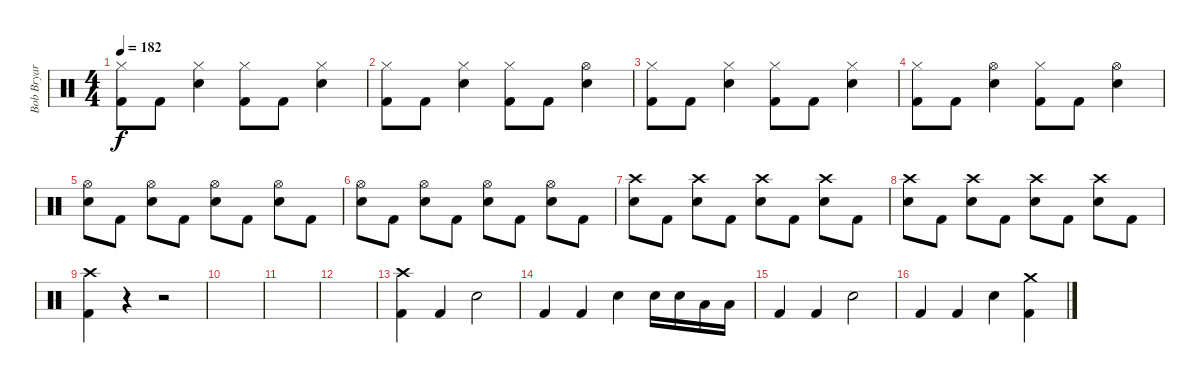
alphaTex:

\track ("Bob Bryar" "Bob Bryar") {instrument percussion}
\staff {score}
\articulation defaults
\ts (4 4)
\tempo 182
\clef neutral
\ks c
("Kick (hit) 2" "Hi-Hat (closed)").8{dy f} "Kick (hit) 2".8 ("Snare (hit) 2" "Hi-Hat (closed)").4 ("Kick (hit) 2" "Hi-Hat (closed)").8 "Kick (hit) 2".8 ("Snare (hit) 2" "Hi-Hat (closed)").4 |
("Kick (hit) 2" "Hi-Hat (closed)").8 "Kick (hit) 2".8 ("Snare (hit) 2" "Hi-Hat (closed)").4 ("Kick (hit) 2" "Hi-Hat (closed)").8 "Kick (hit) 2".8 ("Snare (hit) 2" "Hi-Hat (open)").4 |
("Kick (hit) 2" "Hi-Hat (closed)").8 "Kick (hit) 2".8 ("Snare (hit) 2" "Hi-Hat (closed)").4 ("Kick (hit) 2" "Hi-Hat (closed)").8 "Kick (hit) 2".8 ("Snare (hit) 2" "Hi-Hat (closed)").4 |
("Kick (hit) 2" "Hi-Hat (closed)").8 "Kick (hit) 2".8 ("Snare (hit) 2" "Hi-Hat (open)").4 ("Kick (hit) 2" "Hi-Hat (closed)").8 "Kick (hit) 2".8 ("Snare (hit) 2" "Hi-Hat (open)").4 |
("Hi-Hat (open)" "Snare (hit) 2").8 "Kick (hit) 2".8 ("Hi-Hat (open)" "Snare (hit) 2").8 "Kick (hit) 2".8 ("Hi-Hat (open)" "Snare (hit) 2").8 "Kick (hit) 2".8 ("Hi-Hat (open)" "Snare (hit) 2").8 "Kick (hit) 2".8 |
("Hi-Hat (open)" "Snare (hit) 2").8 "Kick (hit) 2".8 ("Hi-Hat (open)" "Snare (hit) 2").8 "Kick (hit) 2".8 ("Hi-Hat (open)" "Snare (hit) 2").8 "Kick (hit) 2".8 ("Hi-Hat (open)" "Snare (hit) 2").8 "Kick (hit) 2".8 |
("Crash high (hit)" "Snare (hit) 2").8 "Kick (hit) 2".8 ("Crash high (hit)" "Snare (hit) 2").8 "Kick (hit) 2".8 ("Crash high (hit)" "Snare (hit) 2").8 "Kick (hit) 2".8 ("Crash high (hit)" "Snare (hit) 2").8 "Kick (hit) 2".8 |
("Crash high (hit)" "Snare (hit) 2").8 "Kick (hit) 2".8 ("Crash high (hit)" "Snare (hit) 2").8 "Kick (hit) 2".8 ("Crash high (hit)" "Snare (hit) 2").8 "Kick (hit) 2".8 ("Crash high (hit)" "Snare (hit) 2").8 "Kick (hit) 2".8 |
("Crash high (hit)" "Kick (hit) 2").4 r.4 r.2 |
|
|
|
("Crash high (hit)" "Kick (hit) 2").4 "Kick (hit) 2".4 "Snare (hit) 2".2 |
"Kick (hit) 2".4 "Kick (hit) 2".4 "Snare (hit) 2".4 "Snare (hit) 2".16 "Snare (hit) 2".16 "Low Tom (hit)".16 "Low Tom (hit)".16 |
"Kick (hit) 2".4 "Kick (hit) 2".4 "Snare (hit) 2".2 |
"Kick (hit) 2".4 "Kick (hit) 2".4 "Snare (hit) 2".4 ("Crash medium (hit)" "Kick (hit) 2").4
